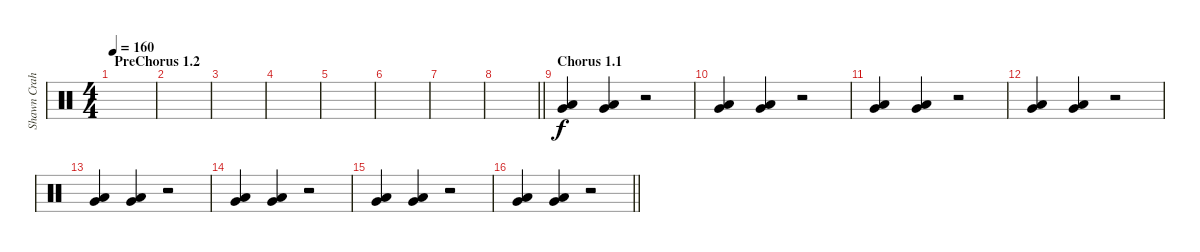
\track ("Shawn Crahan" "Shawn Crah") {instrument percussion}
\staff {score}
\articulation defaults
\ts (4 4)
\section ("" "PreChorus 1.2")
\tempo 160
\clef neutral
\ks c
|
|
|
|
|
|
|
\barLineRight lightlight
|
\section ("" "Chorus 1.1")
("Very Low Tom (hit)" "Low Floor Tom (hit)").4 ("Very Low Tom (hit)" "Low Floor Tom (hit)").4 r.2 |
("Very Low Tom (hit)" "Low Floor Tom (hit)").4 ("Very Low Tom (hit)" "Low Floor Tom (hit)").4 r.2 |
("Very Low Tom (hit)" "Low Floor Tom (hit)").4 ("Very Low Tom (hit)" "Low Floor Tom (hit)").4 r.2 |
("Very Low Tom (hit)" "Low Floor Tom (hit)").4 ("Very Low Tom (hit)" "Low Floor Tom (hit)").4 r.2 |
("Very Low Tom (hit)" "Low Floor Tom (hit)").4 ("Very Low Tom (hit)" "Low Floor Tom (hit)").4 r.2 |
("Very Low Tom (hit)" "Low Floor Tom (hit)").4 ("Very Low Tom (hit)" "Low Floor Tom (hit)").4 r.2 |
("Very Low Tom (hit)" "Low Floor Tom (hit)").4 ("Very Low Tom (hit)" "Low Floor Tom (hit)").4 r.2 |
\barLineRight lightlight
("Very Low Tom (hit)" "Low Floor Tom (hit)").4 ("Very Low Tom (hit)" "Low Floor Tom (hit)").4 r.2
